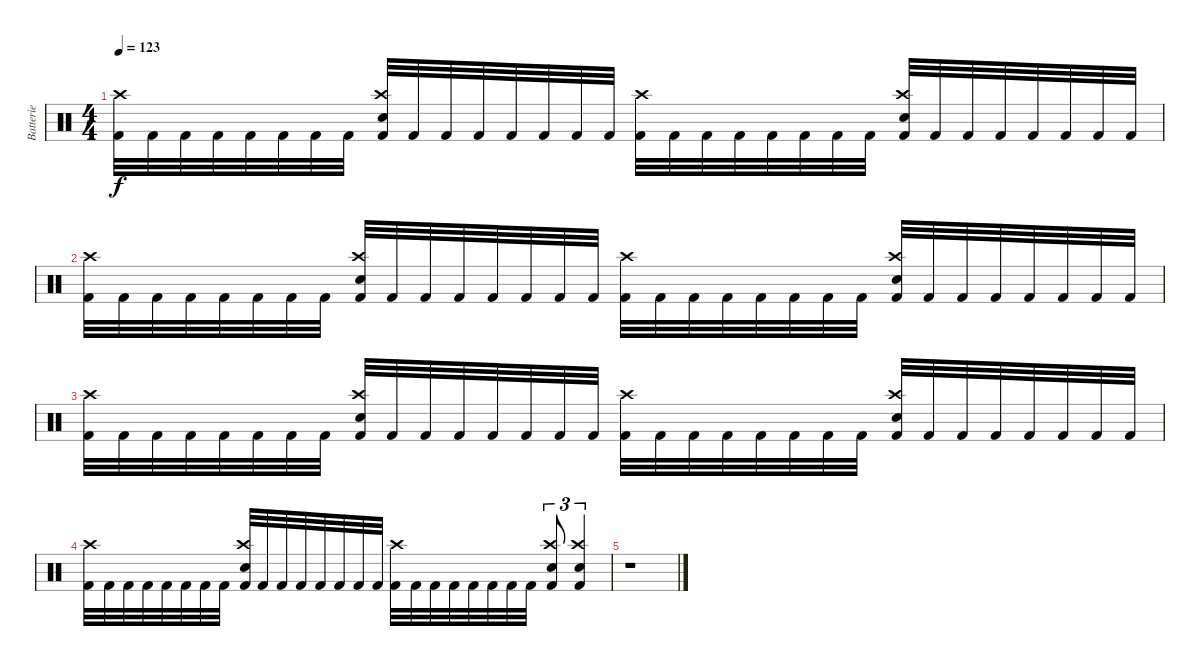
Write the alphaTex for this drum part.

\track ("Batterie" "Batterie") {instrument percussion}
\staff {score}
\articulation defaults
\ts (4 4)
\tempo 123
\clef neutral
\ks c
("Kick (hit) 2" "Crash high (hit)").32{dy f} "Kick (hit) 2".32 "Kick (hit) 2".32 "Kick (hit) 2".32 "Kick (hit) 2".32 "Kick (hit) 2".32 "Kick (hit) 2".32 "Kick (hit) 2".32 ("Kick (hit) 2" "Snare (hit) 2" "Crash high (hit)").32 "Kick (hit) 2".32 "Kick (hit) 2".32 "Kick (hit) 2".32 "Kick (hit) 2".32 "Kick (hit) 2".32 "Kick (hit) 2".32 "Kick (hit) 2".32 ("Kick (hit) 2" "Crash high (hit)").32 "Kick (hit) 2".32 "Kick (hit) 2".32 "Kick (hit) 2".32 "Kick (hit) 2".32 "Kick (hit) 2".32 "Kick (hit) 2".32 "Kick (hit) 2".32 ("Kick (hit) 2" "Snare (hit) 2" "Crash high (hit)").32 "Kick (hit) 2".32 "Kick (hit) 2".32 "Kick (hit) 2".32 "Kick (hit) 2".32 "Kick (hit) 2".32 "Kick (hit) 2".32 "Kick (hit) 2".32 |
("Kick (hit) 2" "Crash high (hit)").32 "Kick (hit) 2".32 "Kick (hit) 2".32 "Kick (hit) 2".32 "Kick (hit) 2".32 "Kick (hit) 2".32 "Kick (hit) 2".32 "Kick (hit) 2".32 ("Kick (hit) 2" "Snare (hit) 2" "Crash high (hit)").32 "Kick (hit) 2".32 "Kick (hit) 2".32 "Kick (hit) 2".32 "Kick (hit) 2".32 "Kick (hit) 2".32 "Kick (hit) 2".32 "Kick (hit) 2".32 ("Kick (hit) 2" "Crash high (hit)").32 "Kick (hit) 2".32 "Kick (hit) 2".32 "Kick (hit) 2".32 "Kick (hit) 2".32 "Kick (hit) 2".32 "Kick (hit) 2".32 "Kick (hit) 2".32 ("Kick (hit) 2" "Snare (hit) 2" "Crash high (hit)").32 "Kick (hit) 2".32 "Kick (hit) 2".32 "Kick (hit) 2".32 "Kick (hit) 2".32 "Kick (hit) 2".32 "Kick (hit) 2".32 "Kick (hit) 2".32 |
("Kick (hit) 2" "Crash high (hit)").32 "Kick (hit) 2".32 "Kick (hit) 2".32 "Kick (hit) 2".32 "Kick (hit) 2".32 "Kick (hit) 2".32 "Kick (hit) 2".32 "Kick (hit) 2".32 ("Kick (hit) 2" "Snare (hit) 2" "Crash high (hit)").32 "Kick (hit) 2".32 "Kick (hit) 2".32 "Kick (hit) 2".32 "Kick (hit) 2".32 "Kick (hit) 2".32 "Kick (hit) 2".32 "Kick (hit) 2".32 ("Kick (hit) 2" "Crash high (hit)").32 "Kick (hit) 2".32 "Kick (hit) 2".32 "Kick (hit) 2".32 "Kick (hit) 2".32 "Kick (hit) 2".32 "Kick (hit) 2".32 "Kick (hit) 2".32 ("Kick (hit) 2" "Snare (hit) 2" "Crash high (hit)").32 "Kick (hit) 2".32 "Kick (hit) 2".32 "Kick (hit) 2".32 "Kick (hit) 2".32 "Kick (hit) 2".32 "Kick (hit) 2".32 "Kick (hit) 2".32 |
("Kick (hit) 2" "Crash high (hit)").32 "Kick (hit) 2".32 "Kick (hit) 2".32 "Kick (hit) 2".32 "Kick (hit) 2".32 "Kick (hit) 2".32 "Kick (hit) 2".32 "Kick (hit) 2".32 ("Kick (hit) 2" "Snare (hit) 2" "Crash high (hit)").32 "Kick (hit) 2".32 "Kick (hit) 2".32 "Kick (hit) 2".32 "Kick (hit) 2".32 "Kick (hit) 2".32 "Kick (hit) 2".32 "Kick (hit) 2".32 ("Kick (hit) 2" "Crash high (hit)").32 "Kick (hit) 2".32 "Kick (hit) 2".32 "Kick (hit) 2".32 "Kick (hit) 2".32 "Kick (hit) 2".32 "Kick (hit) 2".32 "Kick (hit) 2".32 ("Kick (hit) 2" "Snare (hit) 2" "Crash high (hit)").8{tu (3 2)} ("Kick (hit) 2" "Snare (hit) 2" "Crash high (hit)").4{tu (3 2)} |
r.1
